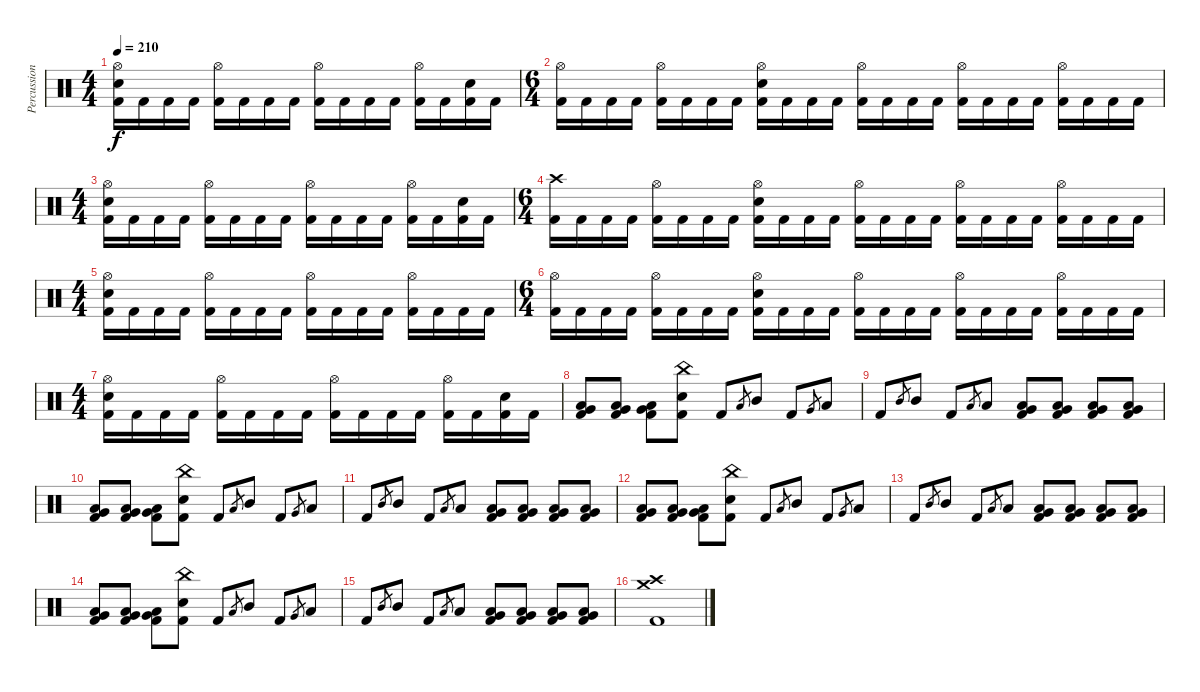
\track ("Percussion" "Percussion") {instrument percussion}
\staff {score}
\articulation defaults
\ts (4 4)
\tempo 210
\clef neutral
\ks c
("Hi-Hat (open)" "Electric Snare (hit)" "Kick (hit) 2").16{dy f} "Kick (hit) 2".16 "Kick (hit) 2".16 "Kick (hit) 2".16 ("Hi-Hat (open)" "Kick (hit) 2").16 "Kick (hit) 2".16 "Kick (hit) 2".16 "Kick (hit) 2".16 ("Hi-Hat (open)" "Kick (hit) 2").16 "Kick (hit) 2".16 "Kick (hit) 2".16 "Kick (hit) 2".16 ("Hi-Hat (open)" "Kick (hit) 2").16 "Kick (hit) 2".16 ("Electric Snare (hit)" "Kick (hit) 2").16 "Kick (hit) 2".16 |
\ts (6 4)
("Hi-Hat (open)" "Kick (hit) 2").16 "Kick (hit) 2".16 "Kick (hit) 2".16 "Kick (hit) 2".16 ("Hi-Hat (open)" "Kick (hit) 2").16 "Kick (hit) 2".16 "Kick (hit) 2".16 "Kick (hit) 2".16 ("Hi-Hat (open)" "Electric Snare (hit)" "Kick (hit) 2").16 "Kick (hit) 2".16 "Kick (hit) 2".16 "Kick (hit) 2".16 ("Hi-Hat (open)" "Kick (hit) 2").16 "Kick (hit) 2".16 "Kick (hit) 2".16 "Kick (hit) 2".16 ("Hi-Hat (open)" "Kick (hit) 2").16 "Kick (hit) 2".16 "Kick (hit) 2".16 "Kick (hit) 2".16 ("Hi-Hat (open)" "Kick (hit) 2").16 "Kick (hit) 2".16 "Kick (hit) 2".16 "Kick (hit) 2".16 |
\ts (4 4)
("Hi-Hat (open)" "Electric Snare (hit)" "Kick (hit) 2").16 "Kick (hit) 2".16 "Kick (hit) 2".16 "Kick (hit) 2".16 ("Hi-Hat (open)" "Kick (hit) 2").16 "Kick (hit) 2".16 "Kick (hit) 2".16 "Kick (hit) 2".16 ("Hi-Hat (open)" "Kick (hit) 2").16 "Kick (hit) 2".16 "Kick (hit) 2".16 "Kick (hit) 2".16 ("Hi-Hat (open)" "Kick (hit) 2").16 "Kick (hit) 2".16 ("Electric Snare (hit)" "Kick (hit) 2").16 "Kick (hit) 2".16 |
\ts (6 4)
("Crash high (hit)" "Kick (hit) 2").16 "Kick (hit) 2".16 "Kick (hit) 2".16 "Kick (hit) 2".16 ("Hi-Hat (open)" "Kick (hit) 2").16 "Kick (hit) 2".16 "Kick (hit) 2".16 "Kick (hit) 2".16 ("Hi-Hat (open)" "Electric Snare (hit)" "Kick (hit) 2").16 "Kick (hit) 2".16 "Kick (hit) 2".16 "Kick (hit) 2".16 ("Hi-Hat (open)" "Kick (hit) 2").16 "Kick (hit) 2".16 "Kick (hit) 2".16 "Kick (hit) 2".16 ("Hi-Hat (open)" "Kick (hit) 2").16 "Kick (hit) 2".16 "Kick (hit) 2".16 "Kick (hit) 2".16 ("Hi-Hat (open)" "Kick (hit) 2").16 "Kick (hit) 2".16 "Kick (hit) 2".16 "Kick (hit) 2".16 |
\ts (4 4)
("Hi-Hat (open)" "Electric Snare (hit)" "Kick (hit) 2").16 "Kick (hit) 2".16 "Kick (hit) 2".16 "Kick (hit) 2".16 ("Hi-Hat (open)" "Kick (hit) 2").16 "Kick (hit) 2".16 "Kick (hit) 2".16 "Kick (hit) 2".16 ("Hi-Hat (open)" "Kick (hit) 2").16 "Kick (hit) 2".16 "Kick (hit) 2".16 "Kick (hit) 2".16 ("Hi-Hat (open)" "Kick (hit) 2").16 "Kick (hit) 2".16 "Kick (hit) 2".16 "Kick (hit) 2".16 |
\ts (6 4)
("Hi-Hat (open)" "Kick (hit) 2").16 "Kick (hit) 2".16 "Kick (hit) 2".16 "Kick (hit) 2".16 ("Hi-Hat (open)" "Kick (hit) 2").16 "Kick (hit) 2".16 "Kick (hit) 2".16 "Kick (hit) 2".16 ("Hi-Hat (open)" "Electric Snare (hit)" "Kick (hit) 2").16 "Kick (hit) 2".16 "Kick (hit) 2".16 "Kick (hit) 2".16 ("Hi-Hat (open)" "Kick (hit) 2").16 "Kick (hit) 2".16 "Kick (hit) 2".16 "Kick (hit) 2".16 ("Hi-Hat (open)" "Kick (hit) 2").16 "Kick (hit) 2".16 "Kick (hit) 2".16 "Kick (hit) 2".16 ("Hi-Hat (open)" "Kick (hit) 2").16 "Kick (hit) 2".16 "Kick (hit) 2".16 "Kick (hit) 2".16 |
\ts (4 4)
("Hi-Hat (open)" "Electric Snare (hit)" "Kick (hit) 2").16 "Kick (hit) 2".16 "Kick (hit) 2".16 "Kick (hit) 2".16 ("Hi-Hat (open)" "Kick (hit) 2").16 "Kick (hit) 2".16 "Kick (hit) 2".16 "Kick (hit) 2".16 ("Hi-Hat (open)" "Kick (hit) 2").16 "Kick (hit) 2".16 "Kick (hit) 2".16 "Kick (hit) 2".16 ("Hi-Hat (open)" "Kick (hit) 2").16 "Kick (hit) 2".16 ("Electric Snare (hit)" "Kick (hit) 2").16 "Kick (hit) 2".16 |
("Very Low Tom (hit)" "Low Floor Tom (hit)" "Kick (hit) 2").8 ("Very Low Tom (hit)" "Low Floor Tom (hit)" "Kick (hit) 2").8 ("Very Low Tom (hit)" "Low Floor Tom (hit)" "Kick (hit) 2").8 ("China (hit)" "Electric Snare (hit)" "Kick (hit) 2").8 "Kick (hit) 2".8 "Low Tom (hit)".8{gr} "Mid Tom (hit)".8 "Kick (hit) 2".8 "Very Low Tom (hit)".8{gr} "Low Tom (hit)".8 |
"Kick (hit) 2".8 "Mid Tom (hit)".8{gr} "Mid Tom (hit)".8 "Kick (hit) 2".8 "Low Tom (hit)".8{gr} "Low Tom (hit)".8 ("Very Low Tom (hit)" "Low Floor Tom (hit)" "Kick (hit) 2").8 ("Very Low Tom (hit)" "Low Floor Tom (hit)" "Kick (hit) 2").8 ("Very Low Tom (hit)" "Low Floor Tom (hit)" "Kick (hit) 2").8 ("Very Low Tom (hit)" "Low Floor Tom (hit)" "Kick (hit) 2").8 |
("Very Low Tom (hit)" "Low Floor Tom (hit)" "Kick (hit) 2").8 ("Very Low Tom (hit)" "Low Floor Tom (hit)" "Kick (hit) 2").8 ("Very Low Tom (hit)" "Low Floor Tom (hit)" "Kick (hit) 2").8 ("China (hit)" "Electric Snare (hit)" "Kick (hit) 2").8 "Kick (hit) 2".8 "Low Tom (hit)".8{gr} "Mid Tom (hit)".8 "Kick (hit) 2".8 "Very Low Tom (hit)".8{gr} "Low Tom (hit)".8 |
"Kick (hit) 2".8 "Mid Tom (hit)".8{gr} "Mid Tom (hit)".8 "Kick (hit) 2".8 "Low Tom (hit)".8{gr} "Low Tom (hit)".8 ("Very Low Tom (hit)" "Low Floor Tom (hit)" "Kick (hit) 2").8 ("Very Low Tom (hit)" "Low Floor Tom (hit)" "Kick (hit) 2").8 ("Very Low Tom (hit)" "Low Floor Tom (hit)" "Kick (hit) 2").8 ("Very Low Tom (hit)" "Low Floor Tom (hit)" "Kick (hit) 2").8 |
("Very Low Tom (hit)" "Low Floor Tom (hit)" "Kick (hit) 2").8 ("Very Low Tom (hit)" "Low Floor Tom (hit)" "Kick (hit) 2").8 ("Very Low Tom (hit)" "Low Floor Tom (hit)" "Kick (hit) 2").8 ("China (hit)" "Electric Snare (hit)" "Kick (hit) 2").8 "Kick (hit) 2".8 "Low Tom (hit)".8{gr} "Mid Tom (hit)".8 "Kick (hit) 2".8 "Very Low Tom (hit)".8{gr} "Low Tom (hit)".8 |
"Kick (hit) 2".8 "Mid Tom (hit)".8{gr} "Mid Tom (hit)".8 "Kick (hit) 2".8 "Low Tom (hit)".8{gr} "Low Tom (hit)".8 ("Very Low Tom (hit)" "Low Floor Tom (hit)" "Kick (hit) 2").8 ("Very Low Tom (hit)" "Low Floor Tom (hit)" "Kick (hit) 2").8 ("Very Low Tom (hit)" "Low Floor Tom (hit)" "Kick (hit) 2").8 ("Very Low Tom (hit)" "Low Floor Tom (hit)" "Kick (hit) 2").8 |
("Very Low Tom (hit)" "Low Floor Tom (hit)" "Kick (hit) 2").8 ("Very Low Tom (hit)" "Low Floor Tom (hit)" "Kick (hit) 2").8 ("Very Low Tom (hit)" "Low Floor Tom (hit)" "Kick (hit) 2").8 ("China (hit)" "Electric Snare (hit)" "Kick (hit) 2").8 "Kick (hit) 2".8 "Low Tom (hit)".8{gr} "Mid Tom (hit)".8 "Kick (hit) 2".8 "Very Low Tom (hit)".8{gr} "Low Tom (hit)".8 |
"Kick (hit) 2".8 "Mid Tom (hit)".8{gr} "Mid Tom (hit)".8 "Kick (hit) 2".8 "Low Tom (hit)".8{gr} "Low Tom (hit)".8 ("Very Low Tom (hit)" "Low Floor Tom (hit)" "Kick (hit) 2").8 ("Very Low Tom (hit)" "Low Floor Tom (hit)" "Kick (hit) 2").8 ("Very Low Tom (hit)" "Low Floor Tom (hit)" "Kick (hit) 2").8 ("Very Low Tom (hit)" "Low Floor Tom (hit)" "Kick (hit) 2").8 |
("Crash medium (hit)" "Crash high (hit)" "Kick (hit) 2").1
